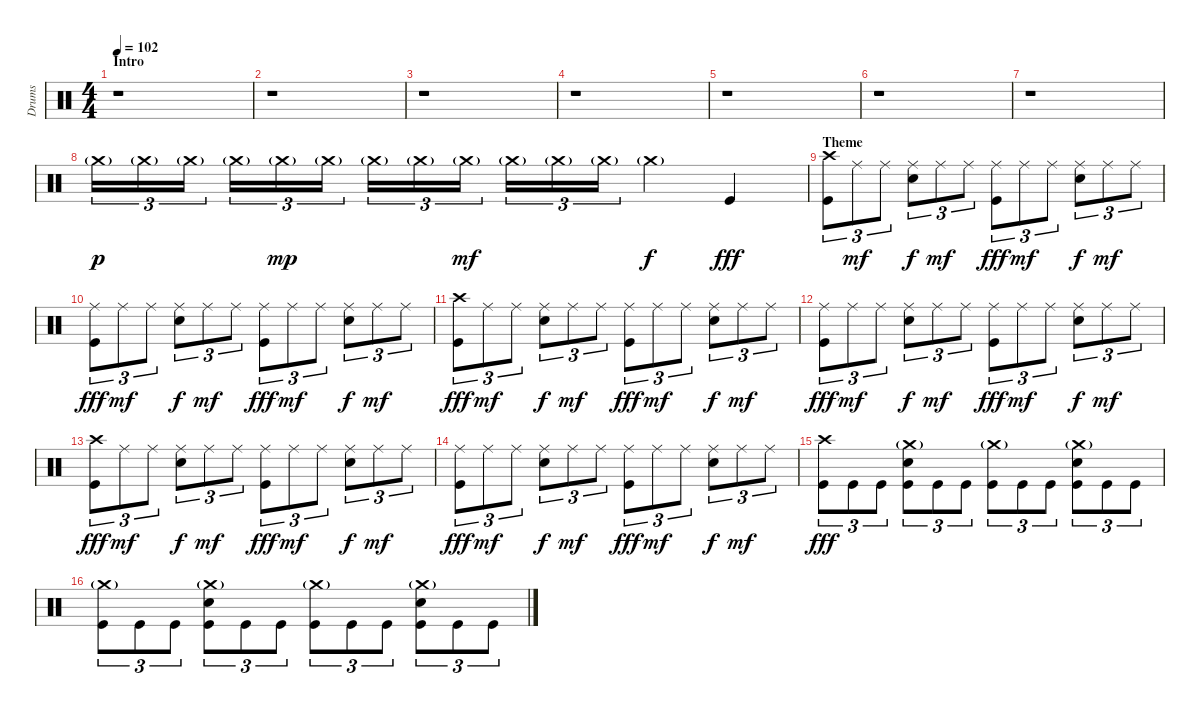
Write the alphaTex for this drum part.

\track ("Drums" "Drums") {instrument percussion}
\staff {score}
\articulation defaults
\ts (4 4)
\section ("" "Intro")
\tempo 102
\clef neutral
\ks c
r.1{dy p} |
r.1 |
r.1 |
r.1 |
r.1 |
r.1 |
r.1 |
"Crash medium (hit)"{g}.16{tu (3 2)} "Crash medium (hit)"{g}.16{tu (3 2)} "Crash medium (hit)"{g}.16{tu (3 2)} "Crash medium (hit)"{g}.16{tu (3 2)} "Crash medium (hit)"{g}.16{tu (3 2) dy mp} "Crash medium (hit)"{g}.16{tu (3 2)} "Crash medium (hit)"{g}.16{tu (3 2)} "Crash medium (hit)"{g}.16{tu (3 2)} "Crash medium (hit)"{g}.16{tu (3 2) dy mf} "Crash medium (hit)"{g}.16{tu (3 2)} "Crash medium (hit)"{g}.16{tu (3 2)} "Crash medium (hit)"{g}.16{tu (3 2)} "Crash medium (hit)"{g}.4{dy f} "Kick (hit)".4{dy fff} |
\section ("" "Theme")
("Crash high (hit)" "Kick (hit)").8{tu (3 2)} "Ride (middle)".8{tu (3 2) dy mf} "Ride (middle)".8{tu (3 2)} ("Ride (middle)" "Snare (hit) 2").8{tu (3 2) dy f} "Ride (middle)".8{tu (3 2) dy mf} "Ride (middle)".8{tu (3 2)} ("Ride (middle)" "Kick (hit)").8{tu (3 2) dy fff} "Ride (middle)".8{tu (3 2) dy mf} "Ride (middle)".8{tu (3 2)} ("Ride (middle)" "Snare (hit) 2").8{tu (3 2) dy f} "Ride (middle)".8{tu (3 2) dy mf} "Ride (middle)".8{tu (3 2)} |
("Ride (middle)" "Kick (hit)").8{tu (3 2) dy fff} "Ride (middle)".8{tu (3 2) dy mf} "Ride (middle)".8{tu (3 2)} ("Ride (middle)" "Snare (hit) 2").8{tu (3 2) dy f} "Ride (middle)".8{tu (3 2) dy mf} "Ride (middle)".8{tu (3 2)} ("Ride (middle)" "Kick (hit)").8{tu (3 2) dy fff} "Ride (middle)".8{tu (3 2) dy mf} "Ride (middle)".8{tu (3 2)} ("Ride (middle)" "Snare (hit) 2").8{tu (3 2) dy f} "Ride (middle)".8{tu (3 2) dy mf} "Ride (middle)".8{tu (3 2)} |
("Crash high (hit)" "Kick (hit)").8{tu (3 2) dy fff} "Ride (middle)".8{tu (3 2) dy mf} "Ride (middle)".8{tu (3 2)} ("Ride (middle)" "Snare (hit) 2").8{tu (3 2) dy f} "Ride (middle)".8{tu (3 2) dy mf} "Ride (middle)".8{tu (3 2)} ("Ride (middle)" "Kick (hit)").8{tu (3 2) dy fff} "Ride (middle)".8{tu (3 2) dy mf} "Ride (middle)".8{tu (3 2)} ("Ride (middle)" "Snare (hit) 2").8{tu (3 2) dy f} "Ride (middle)".8{tu (3 2) dy mf} "Ride (middle)".8{tu (3 2)} |
("Ride (middle)" "Kick (hit)").8{tu (3 2) dy fff} "Ride (middle)".8{tu (3 2) dy mf} "Ride (middle)".8{tu (3 2)} ("Ride (middle)" "Snare (hit) 2").8{tu (3 2) dy f} "Ride (middle)".8{tu (3 2) dy mf} "Ride (middle)".8{tu (3 2)} ("Ride (middle)" "Kick (hit)").8{tu (3 2) dy fff} "Ride (middle)".8{tu (3 2) dy mf} "Ride (middle)".8{tu (3 2)} ("Ride (middle)" "Snare (hit) 2").8{tu (3 2) dy f} "Ride (middle)".8{tu (3 2) dy mf} "Ride (middle)".8{tu (3 2)} |
("Crash high (hit)" "Kick (hit)").8{tu (3 2) dy fff} "Ride (middle)".8{tu (3 2) dy mf} "Ride (middle)".8{tu (3 2)} ("Ride (middle)" "Snare (hit) 2").8{tu (3 2) dy f} "Ride (middle)".8{tu (3 2) dy mf} "Ride (middle)".8{tu (3 2)} ("Ride (middle)" "Kick (hit)").8{tu (3 2) dy fff} "Ride (middle)".8{tu (3 2) dy mf} "Ride (middle)".8{tu (3 2)} ("Ride (middle)" "Snare (hit) 2").8{tu (3 2) dy f} "Ride (middle)".8{tu (3 2) dy mf} "Ride (middle)".8{tu (3 2)} |
("Ride (middle)" "Kick (hit)").8{tu (3 2) dy fff} "Ride (middle)".8{tu (3 2) dy mf} "Ride (middle)".8{tu (3 2)} ("Ride (middle)" "Snare (hit) 2").8{tu (3 2) dy f} "Ride (middle)".8{tu (3 2) dy mf} "Ride (middle)".8{tu (3 2)} ("Ride (middle)" "Kick (hit)").8{tu (3 2) dy fff} "Ride (middle)".8{tu (3 2) dy mf} "Ride (middle)".8{tu (3 2)} ("Ride (middle)" "Snare (hit) 2").8{tu (3 2) dy f} "Ride (middle)".8{tu (3 2) dy mf} "Ride (middle)".8{tu (3 2)} |
("Crash high (hit)" "Kick (hit)").8{tu (3 2) dy fff} "Kick (hit)".8{tu (3 2)} "Kick (hit)".8{tu (3 2)} ("Crash medium (hit)"{g} "Snare (hit) 2" "Kick (hit)").8{tu (3 2)} "Kick (hit)".8{tu (3 2)} "Kick (hit)".8{tu (3 2)} ("Crash medium (hit)"{g} "Kick (hit)").8{tu (3 2)} "Kick (hit)".8{tu (3 2)} "Kick (hit)".8{tu (3 2)} ("Crash medium (hit)"{g} "Snare (hit) 2" "Kick (hit)").8{tu (3 2)} "Kick (hit)".8{tu (3 2)} "Kick (hit)".8{tu (3 2)} |
("Crash medium (hit)"{g} "Kick (hit)").8{tu (3 2)} "Kick (hit)".8{tu (3 2)} "Kick (hit)".8{tu (3 2)} ("Crash medium (hit)"{g} "Snare (hit) 2" "Kick (hit)").8{tu (3 2)} "Kick (hit)".8{tu (3 2)} "Kick (hit)".8{tu (3 2)} ("Crash medium (hit)"{g} "Kick (hit)").8{tu (3 2)} "Kick (hit)".8{tu (3 2)} "Kick (hit)".8{tu (3 2)} ("Crash medium (hit)"{g} "Snare (hit) 2" "Kick (hit)").8{tu (3 2)} "Kick (hit)".8{tu (3 2)} "Kick (hit)".8{tu (3 2)}
